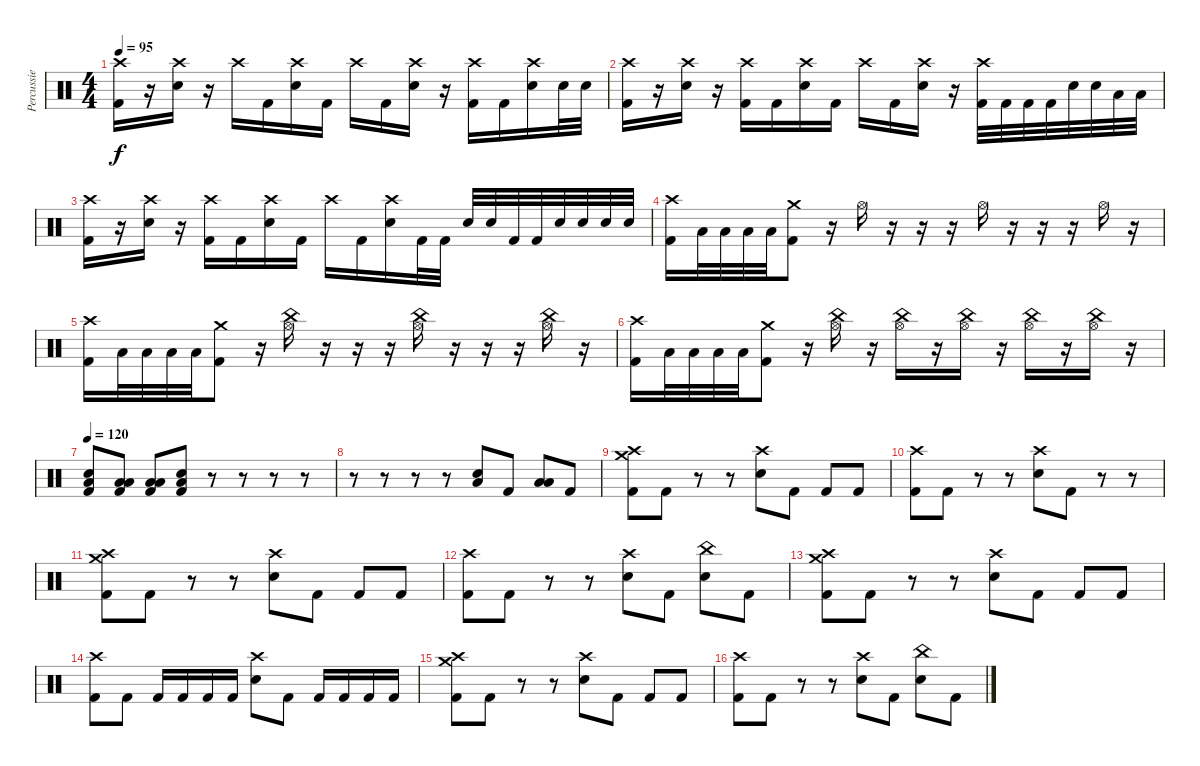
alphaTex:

\track ("Percussie" "Percussie") {instrument percussion}
\staff {score}
\articulation defaults
\ts (4 4)
\tempo 95
\clef neutral
\ks c
("Crash high (hit)" "Kick (hit) 2").16{dy f} r.16 ("Crash high (hit)" "Electric Snare (hit)").16 r.16 "Crash high (hit)".16 "Kick (hit) 2".16 ("Crash high (hit)" "Electric Snare (hit)").16 "Kick (hit) 2".16 "Crash high (hit)".16 "Kick (hit) 2".16 ("Crash high (hit)" "Electric Snare (hit)").16 r.16 ("Crash high (hit)" "Kick (hit) 2").16 "Kick (hit) 2".16 ("Crash high (hit)" "Electric Snare (hit)").16 "Electric Snare (hit)".32 "Electric Snare (hit)".32 |
("Crash high (hit)" "Kick (hit) 2").16 r.16 ("Crash high (hit)" "Electric Snare (hit)").16 r.16 ("Crash high (hit)" "Kick (hit) 2").16 "Kick (hit) 2".16 ("Crash high (hit)" "Electric Snare (hit)").16 "Kick (hit) 2".16 "Crash high (hit)".16 "Kick (hit) 2".16 ("Crash high (hit)" "Electric Snare (hit)").16 r.16 ("Crash high (hit)" "Kick (hit) 2").32 "Kick (hit) 2".32 "Kick (hit) 2".32 "Kick (hit) 2".32 "Electric Snare (hit)".32 "Electric Snare (hit)".32 "Low Tom (hit)".32 "Low Tom (hit)".32 |
("Crash high (hit)" "Kick (hit) 2").16 r.16 ("Crash high (hit)" "Electric Snare (hit)").16 r.16 ("Crash high (hit)" "Kick (hit) 2").16 "Kick (hit) 2".16 ("Crash high (hit)" "Electric Snare (hit)").16 "Kick (hit) 2".16 "Crash high (hit)".16 "Kick (hit) 2".16 ("Crash high (hit)" "Electric Snare (hit)").16 "Kick (hit) 2".32 "Kick (hit) 2".32 "Electric Snare (hit)".32 "Electric Snare (hit)".32 "Kick (hit) 2".32 "Kick (hit) 2".32 "Electric Snare (hit)".32 "Electric Snare (hit)".32 "Electric Snare (hit)".32 "Electric Snare (hit)".32 |
("Crash high (hit)" "Kick (hit) 2").16 "Low Tom (hit)".32 "Low Tom (hit)".32 "Low Floor Tom (hit)".32 "Low Floor Tom (hit)".32 ("Crash medium (hit)" "Kick (hit) 2").8 r.16 "Hi-Hat (open)".16 r.16 r.16 r.16 "Hi-Hat (open)".16 r.16 r.16 r.16 "Hi-Hat (open)".16 r.16 |
("Crash high (hit)" "Kick (hit) 2").16 "Low Tom (hit)".32 "Low Tom (hit)".32 "Low Floor Tom (hit)".32 "Low Floor Tom (hit)".32 ("Crash medium (hit)" "Kick (hit) 2").8 r.16 ("China (hit)" "Hi-Hat (open)").16 r.16 r.16 r.16 ("China (hit)" "Hi-Hat (open)").16 r.16 r.16 r.16 ("China (hit)" "Hi-Hat (open)").16 r.16 |
("Crash high (hit)" "Kick (hit) 2").16 "Low Tom (hit)".32 "Low Tom (hit)".32 "Low Floor Tom (hit)".32 "Low Floor Tom (hit)".32 ("Crash medium (hit)" "Kick (hit) 2").8 r.16 ("China (hit)" "Hi-Hat (open)").16 r.16 ("China (hit)" "Hi-Hat (open)").16 r.16 ("China (hit)" "Hi-Hat (open)").16 r.16 ("China (hit)" "Hi-Hat (open)").16 r.16 ("China (hit)" "Hi-Hat (open)").16 r.16 |
\tempo 120
("Low Floor Tom (hit)" "Electric Snare (hit)" "Kick (hit) 2").8 ("Low Tom (hit)" "Low Floor Tom (hit)" "Kick (hit) 2").8 ("Low Tom (hit)" "Low Floor Tom (hit)" "Kick (hit) 2").8 ("Low Floor Tom (hit)" "Electric Snare (hit)" "Kick (hit) 2").8 r.8 r.8 r.8 r.8 |
r.8 r.8 r.8 r.8 ("Low Floor Tom (hit)" "Electric Snare (hit)").8 "Kick (hit) 2".8 ("Low Tom (hit)" "Low Floor Tom (hit)").8 "Kick (hit) 2".8 |
("Crash medium (hit)" "Crash high (hit)" "Kick (hit) 2").8 "Kick (hit) 2".8 r.8 r.8 ("Crash high (hit)" "Electric Snare (hit)").8 "Kick (hit) 2".8 "Kick (hit) 2".8 "Kick (hit) 2".8 |
("Crash high (hit)" "Kick (hit) 2").8 "Kick (hit) 2".8 r.8 r.8 ("Crash high (hit)" "Electric Snare (hit)").8 "Kick (hit) 2".8 r.8 r.8 |
("Crash medium (hit)" "Crash high (hit)" "Kick (hit) 2").8 "Kick (hit) 2".8 r.8 r.8 ("Crash high (hit)" "Electric Snare (hit)").8 "Kick (hit) 2".8 "Kick (hit) 2".8 "Kick (hit) 2".8 |
("Crash high (hit)" "Kick (hit) 2").8 "Kick (hit) 2".8 r.8 r.8 ("Crash high (hit)" "Electric Snare (hit)").8 "Kick (hit) 2".8 ("China (hit)" "Electric Snare (hit)").8 "Kick (hit) 2".8 |
("Crash medium (hit)" "Crash high (hit)" "Kick (hit) 2").8 "Kick (hit) 2".8 r.8 r.8 ("Crash high (hit)" "Electric Snare (hit)").8 "Kick (hit) 2".8 "Kick (hit) 2".8 "Kick (hit) 2".8 |
("Crash high (hit)" "Kick (hit) 2").8 "Kick (hit) 2".8 "Kick (hit) 2".16 "Kick (hit) 2".16 "Kick (hit) 2".16 "Kick (hit) 2".16 ("Crash high (hit)" "Electric Snare (hit)").8 "Kick (hit) 2".8 "Kick (hit) 2".16 "Kick (hit) 2".16 "Kick (hit) 2".16 "Kick (hit) 2".16 |
("Crash medium (hit)" "Crash high (hit)" "Kick (hit) 2").8 "Kick (hit) 2".8 r.8 r.8 ("Crash high (hit)" "Electric Snare (hit)").8 "Kick (hit) 2".8 "Kick (hit) 2".8 "Kick (hit) 2".8 |
("Crash high (hit)" "Kick (hit) 2").8 "Kick (hit) 2".8 r.8 r.8 ("Crash high (hit)" "Electric Snare (hit)").8 "Kick (hit) 2".8 ("China (hit)" "Electric Snare (hit)").8 "Kick (hit) 2".8
